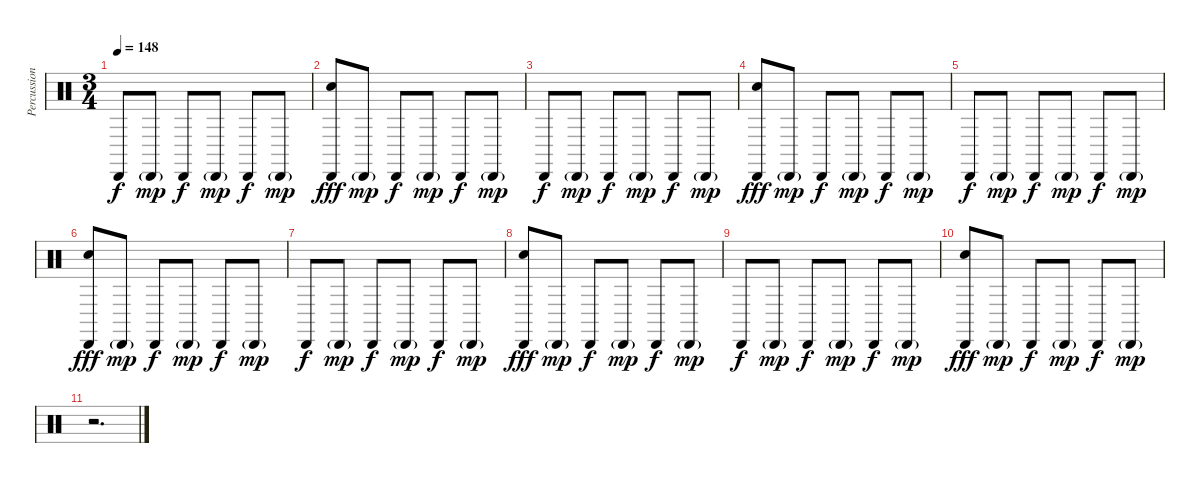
\track ("Percussion" "Percussion") {instrument percussion}
\staff {score}
\articulation defaults
\ts (3 4)
\tempo 148
\clef neutral
\ks c "Cabasa (hit)".8{dy f} "Cabasa (hit)"{g}.8{dy mp} "Cabasa (hit)".8{dy f} "Cabasa (hit)"{g}.8{dy mp} "Cabasa (hit)".8{dy f} "Cabasa (hit)"{g}.8{dy mp}
|
("Cabasa (hit)" "Hand Clap (hit)").8{dy fff} "Cabasa (hit)"{g}.8{dy mp} "Cabasa (hit)".8{dy f} "Cabasa (hit)"{g}.8{dy mp} "Cabasa (hit)".8{dy f} "Cabasa (hit)"{g}.8{dy mp} |
"Cabasa (hit)".8{dy f} "Cabasa (hit)"{g}.8{dy mp} "Cabasa (hit)".8{dy f} "Cabasa (hit)"{g}.8{dy mp} "Cabasa (hit)".8{dy f} "Cabasa (hit)"{g}.8{dy mp} |
("Cabasa (hit)" "Hand Clap (hit)").8{dy fff} "Cabasa (hit)"{g}.8{dy mp} "Cabasa (hit)".8{dy f} "Cabasa (hit)"{g}.8{dy mp} "Cabasa (hit)".8{dy f} "Cabasa (hit)"{g}.8{dy mp} |
"Cabasa (hit)".8{dy f} "Cabasa (hit)"{g}.8{dy mp} "Cabasa (hit)".8{dy f} "Cabasa (hit)"{g}.8{dy mp} "Cabasa (hit)".8{dy f} "Cabasa (hit)"{g}.8{dy mp} |
("Cabasa (hit)" "Hand Clap (hit)").8{dy fff} "Cabasa (hit)"{g}.8{dy mp} "Cabasa (hit)".8{dy f} "Cabasa (hit)"{g}.8{dy mp} "Cabasa (hit)".8{dy f} "Cabasa (hit)"{g}.8{dy mp} |
"Cabasa (hit)".8{dy f} "Cabasa (hit)"{g}.8{dy mp} "Cabasa (hit)".8{dy f} "Cabasa (hit)"{g}.8{dy mp} "Cabasa (hit)".8{dy f} "Cabasa (hit)"{g}.8{dy mp} |
("Cabasa (hit)" "Hand Clap (hit)").8{dy fff} "Cabasa (hit)"{g}.8{dy mp} "Cabasa (hit)".8{dy f} "Cabasa (hit)"{g}.8{dy mp} "Cabasa (hit)".8{dy f} "Cabasa (hit)"{g}.8{dy mp} |
"Cabasa (hit)".8{dy f} "Cabasa (hit)"{g}.8{dy mp} "Cabasa (hit)".8{dy f} "Cabasa (hit)"{g}.8{dy mp} "Cabasa (hit)".8{dy f} "Cabasa (hit)"{g}.8{dy mp} |
("Cabasa (hit)" "Hand Clap (hit)").8{dy fff} "Cabasa (hit)"{g}.8{dy mp} "Cabasa (hit)".8{dy f} "Cabasa (hit)"{g}.8{dy mp} "Cabasa (hit)".8{dy f} "Cabasa (hit)"{g}.8{dy mp} |
r.2{d}
